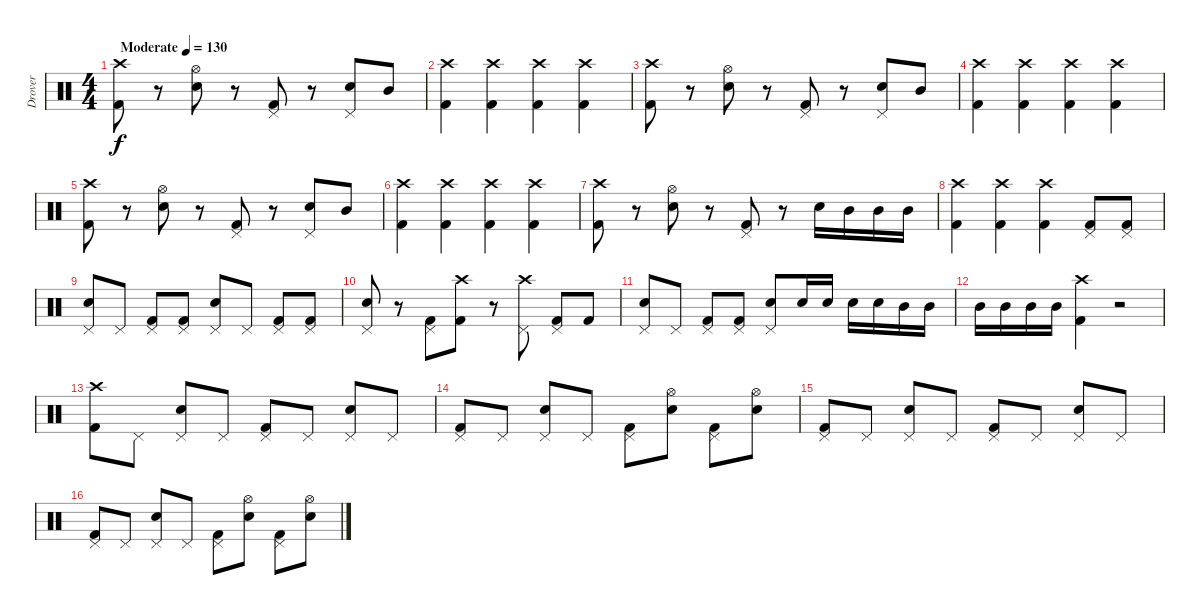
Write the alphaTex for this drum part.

\track ("Drover" "Drover") {instrument percussion}
\staff {score}
\articulation defaults
\ts (4 4)
\tempo (130 "Moderate")
\clef neutral
\ks c
("Crash high (hit)" "Kick (hit) 2").8{dy f} r.8 ("Electric Snare (hit)" "Hi-Hat (open)").8 r.8 ("Kick (hit) 2" "Pedal Hi-Hat (hit)").8 r.8 ("Electric Snare (hit)" "Pedal Hi-Hat (hit)").8 "Mid Tom (hit)".8 |
("Kick (hit) 2" "Crash high (hit)").4 ("Kick (hit) 2" "Crash high (hit)").4 ("Kick (hit) 2" "Crash high (hit)").4 ("Kick (hit) 2" "Crash high (hit)").4 |
("Crash high (hit)" "Kick (hit) 2").8 r.8 ("Electric Snare (hit)" "Hi-Hat (open)").8 r.8 ("Kick (hit) 2" "Pedal Hi-Hat (hit)").8 r.8 ("Electric Snare (hit)" "Pedal Hi-Hat (hit)").8 "Mid Tom (hit)".8 |
("Kick (hit) 2" "Crash high (hit)").4 ("Kick (hit) 2" "Crash high (hit)").4 ("Kick (hit) 2" "Crash high (hit)").4 ("Kick (hit) 2" "Crash high (hit)").4 |
("Crash high (hit)" "Kick (hit) 2").8 r.8 ("Electric Snare (hit)" "Hi-Hat (open)").8 r.8 ("Kick (hit) 2" "Pedal Hi-Hat (hit)").8 r.8 ("Electric Snare (hit)" "Pedal Hi-Hat (hit)").8 "Mid Tom (hit)".8 |
("Kick (hit) 2" "Crash high (hit)").4 ("Kick (hit) 2" "Crash high (hit)").4 ("Kick (hit) 2" "Crash high (hit)").4 ("Kick (hit) 2" "Crash high (hit)").4 |
("Crash high (hit)" "Kick (hit) 2").8 r.8 ("Electric Snare (hit)" "Hi-Hat (open)").8 r.8 ("Kick (hit) 2" "Pedal Hi-Hat (hit)").8 r.8 "Snare (hit) 2".16 "Mid Tom (hit)".16 "Mid Tom (hit)".16 "Mid Tom (hit)".16 |
("Kick (hit) 2" "Crash high (hit)").4 ("Kick (hit) 2" "Crash high (hit)").4 ("Kick (hit) 2" "Crash high (hit)").4 ("Kick (hit) 2" "Pedal Hi-Hat (hit)").8 ("Kick (hit) 2" "Pedal Hi-Hat (hit)").8 |
("Electric Snare (hit)" "Pedal Hi-Hat (hit)").8 "Pedal Hi-Hat (hit)".8 ("Kick (hit) 2" "Pedal Hi-Hat (hit)").8 ("Kick (hit) 2" "Pedal Hi-Hat (hit)").8 ("Electric Snare (hit)" "Pedal Hi-Hat (hit)").8 "Pedal Hi-Hat (hit)".8 ("Kick (hit) 2" "Pedal Hi-Hat (hit)").8 ("Kick (hit) 2" "Pedal Hi-Hat (hit)").8 |
("Pedal Hi-Hat (hit)" "Electric Snare (hit)").8 r.8 ("Pedal Hi-Hat (hit)" "Kick (hit) 2").8 ("Kick (hit) 2" "Crash high (hit)").8 r.8 ("Pedal Hi-Hat (hit)" "Crash high (hit)").8 ("Pedal Hi-Hat (hit)" "Kick (hit) 2").8 "Kick (hit) 2".8 |
("Electric Snare (hit)" "Pedal Hi-Hat (hit)").8 "Pedal Hi-Hat (hit)".8 ("Kick (hit) 2" "Pedal Hi-Hat (hit)").8 ("Kick (hit) 2" "Pedal Hi-Hat (hit)").8 ("Electric Snare (hit)" "Pedal Hi-Hat (hit)").8 "Snare (hit) 2".16 "Snare (hit) 2".16 "Snare (hit) 2".16 "Snare (hit) 2".16 "Mid Tom (hit)".16 "Mid Tom (hit)".16 |
"Mid Tom (hit)".16 "Mid Tom (hit)".16 "Mid Tom (hit)".16 "Mid Tom (hit)".16 ("Kick (hit) 2" "Crash high (hit)").4 r.2 |
("Crash high (hit)" "Kick (hit) 2").8 "Pedal Hi-Hat (hit)".8 ("Pedal Hi-Hat (hit)" "Electric Snare (hit)").8 "Pedal Hi-Hat (hit)".8 ("Pedal Hi-Hat (hit)" "Kick (hit) 2").8 "Pedal Hi-Hat (hit)".8 ("Pedal Hi-Hat (hit)" "Electric Snare (hit)").8 "Pedal Hi-Hat (hit)".8 |
("Pedal Hi-Hat (hit)" "Kick (hit) 2").8 "Pedal Hi-Hat (hit)".8 ("Pedal Hi-Hat (hit)" "Electric Snare (hit)").8 "Pedal Hi-Hat (hit)".8 ("Kick (hit) 2" "Pedal Hi-Hat (hit)").8 ("Electric Snare (hit)" "Hi-Hat (open)").8 ("Kick (hit) 2" "Pedal Hi-Hat (hit)").8 ("Electric Snare (hit)" "Hi-Hat (open)").8 |
("Pedal Hi-Hat (hit)" "Kick (hit) 2").8 "Pedal Hi-Hat (hit)".8 ("Pedal Hi-Hat (hit)" "Electric Snare (hit)").8 "Pedal Hi-Hat (hit)".8 ("Pedal Hi-Hat (hit)" "Kick (hit) 2").8 "Pedal Hi-Hat (hit)".8 ("Pedal Hi-Hat (hit)" "Electric Snare (hit)").8 "Pedal Hi-Hat (hit)".8 |
("Pedal Hi-Hat (hit)" "Kick (hit) 2").8 "Pedal Hi-Hat (hit)".8 ("Pedal Hi-Hat (hit)" "Electric Snare (hit)").8 "Pedal Hi-Hat (hit)".8 ("Kick (hit) 2" "Pedal Hi-Hat (hit)").8 ("Electric Snare (hit)" "Hi-Hat (open)").8 ("Kick (hit) 2" "Pedal Hi-Hat (hit)").8 ("Electric Snare (hit)" "Hi-Hat (open)").8
